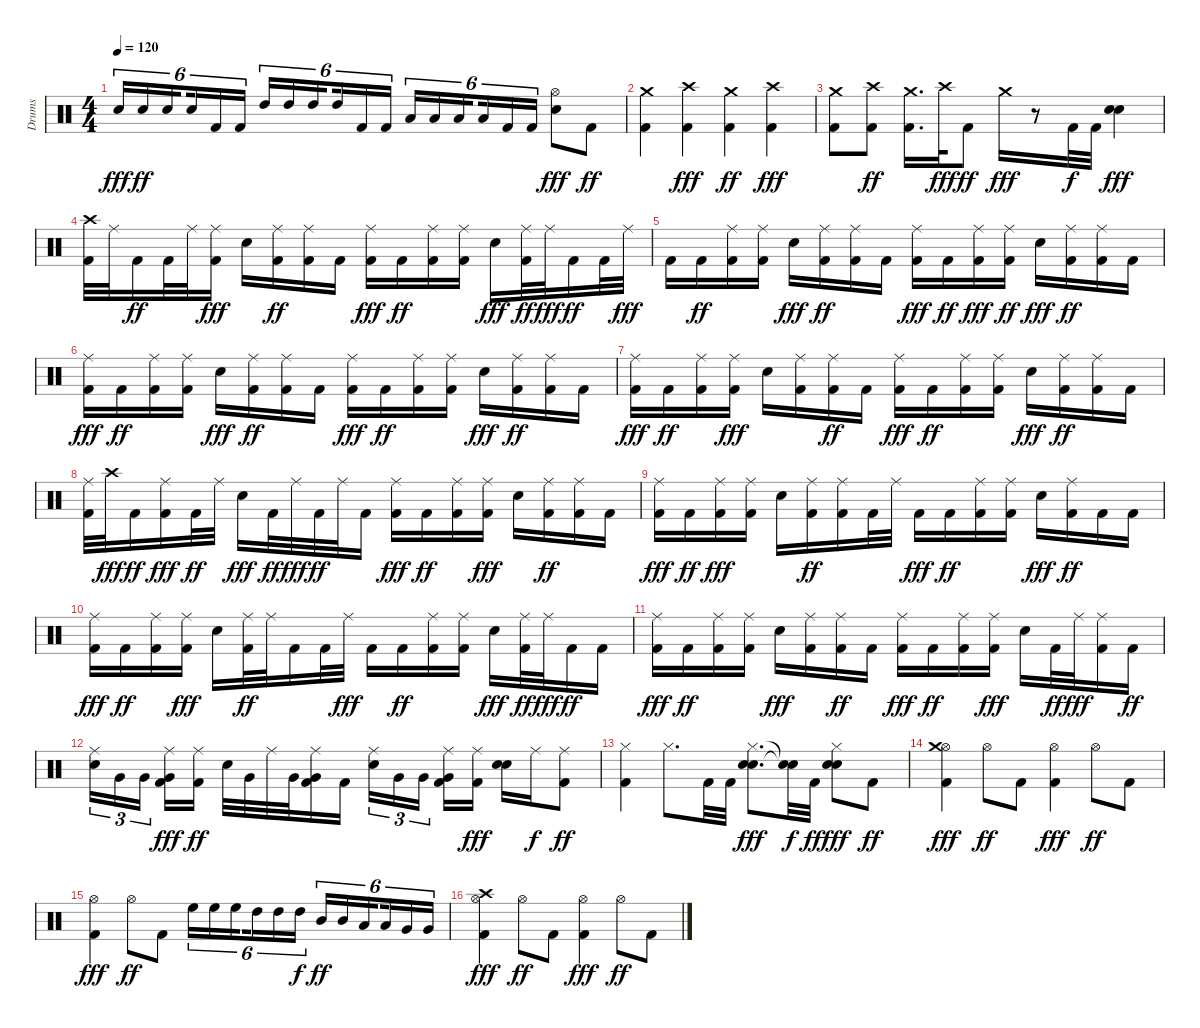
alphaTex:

\track ("Drums" "Drums") {instrument percussion}
\staff {score}
\articulation defaults
\ts (4 4)
\tempo 120
\clef neutral
\ks c "Snare (hit) 2".16{tu (6 4) dy fff} "Snare (hit) 2".16{tu (6 4) dy ff} "Snare (hit) 2".16{tu (6 4) beam splitsecondary} "Snare (hit) 2".16{tu (6 4)} "Kick (hit) 2".16{tu (6 4)} "Kick (hit) 2".16{tu (6 4)} "High Tom (hit)".16{tu (6 4)} "High Tom (hit)".16{tu (6 4)} "High Tom (hit)".16{tu (6 4) beam splitsecondary} "High Tom (hit)".16{tu (6 4)} "Kick (hit) 2".16{tu (6 4)} "Kick (hit) 2".16{tu (6 4)} "Low Tom (hit)".16{tu (6 4)} "Low Tom (hit)".16{tu (6 4)} "Low Tom (hit)".16{tu (6 4) beam splitsecondary} "Low Tom (hit)".16{tu (6 4)} "Kick (hit) 2".16{tu (6 4)} "Kick (hit) 2".16{tu (6 4)}
("Hi-Hat (open)" "Snare (hit) 2").8{dy fff} "Kick (hit) 2".8{dy ff} |
("Kick (hit) 2" "Crash medium (hit)").4 ("Kick (hit) 2" "Crash high (hit)").4{dy fff} ("Kick (hit) 2" "Crash medium (hit)").4{dy ff} ("Kick (hit) 2" "Crash high (hit)").4{dy fff} |
("Crash medium (hit)" "Kick (hit) 2").8 ("Crash high (hit)" "Kick (hit) 2").8{dy ff} ("Crash medium (hit)" "Kick (hit) 2").16{d} "Crash high (hit)".32{dy fff} "Kick (hit) 2".8{dy ff} "Crash medium (hit)".16{dy fff} r.8 "Kick (hit) 2".32{dy f} "Kick (hit) 2".32 ("Snare (hit) 2" "Electric Snare (hit)").4{dy fff} |
("Kick (hit) 2" "Crash high (hit)").32 "Ride (middle)".32 "Kick (hit) 2".16{dy ff} "Kick (hit) 2".32 "Ride (middle)".32 ("Kick (hit) 2" "Ride (middle)").16{dy fff} "Snare (hit) 2".16 ("Kick (hit) 2" "Ride (middle)").16{dy ff} ("Ride (middle)" "Kick (hit) 2").16 "Kick (hit) 2".16 ("Ride (middle)" "Kick (hit) 2").16{dy fff} "Kick (hit) 2".16{dy ff} ("Ride (middle)" "Kick (hit) 2").16 ("Ride (middle)" "Kick (hit) 2").16 "Snare (hit) 2".16{dy fff} ("Ride (middle)" "Kick (hit) 2").32{dy ff} "Ride (middle)".32{dy fff} "Kick (hit) 2".16{dy ff} "Kick (hit) 2".32 "Ride (middle)".32{dy fff} |
"Kick (hit) 2".16 "Kick (hit) 2".16{dy ff} ("Ride (middle)" "Kick (hit) 2").16 ("Ride (middle)" "Kick (hit) 2").16 "Snare (hit) 2".16{dy fff} ("Ride (middle)" "Kick (hit) 2").16{dy ff} ("Ride (middle)" "Kick (hit) 2").16 "Kick (hit) 2".16 ("Ride (middle)" "Kick (hit) 2").16{dy fff} "Kick (hit) 2".16{dy ff} ("Kick (hit) 2" "Ride (middle)").16{dy fff} ("Kick (hit) 2" "Ride (middle)").16{dy ff} "Snare (hit) 2".16{dy fff} ("Kick (hit) 2" "Ride (middle)").16{dy ff} ("Ride (middle)" "Kick (hit) 2").16 "Kick (hit) 2".16 |
("Ride (middle)" "Kick (hit) 2").16{dy fff} "Kick (hit) 2".16{dy ff} ("Ride (middle)" "Kick (hit) 2").16 ("Ride (middle)" "Kick (hit) 2").16 "Snare (hit) 2".16{dy fff} ("Ride (middle)" "Kick (hit) 2").16{dy ff} ("Ride (middle)" "Kick (hit) 2").16 "Kick (hit) 2".16 ("Ride (middle)" "Kick (hit) 2").16{dy fff} "Kick (hit) 2".16{dy ff} ("Kick (hit) 2" "Ride (middle)").16 ("Kick (hit) 2" "Ride (middle)").16 "Snare (hit) 2".16{dy fff} ("Kick (hit) 2" "Ride (middle)").16{dy ff} ("Ride (middle)" "Kick (hit) 2").16 "Kick (hit) 2".16 |
("Ride (middle)" "Kick (hit) 2").16{dy fff} "Kick (hit) 2".16{dy ff} ("Ride (middle)" "Kick (hit) 2").16 ("Kick (hit) 2" "Ride (middle)").16{dy fff} "Snare (hit) 2".16 ("Kick (hit) 2" "Ride (middle)").16 ("Ride (middle)" "Kick (hit) 2").16{dy ff} "Kick (hit) 2".16 ("Ride (middle)" "Kick (hit) 2").16{dy fff} "Kick (hit) 2".16{dy ff} ("Kick (hit) 2" "Ride (middle)").16 ("Kick (hit) 2" "Ride (middle)").16 "Snare (hit) 2".16{dy fff} ("Kick (hit) 2" "Ride (middle)").16{dy ff} ("Ride (middle)" "Kick (hit) 2").16 "Kick (hit) 2".16 |
("Kick (hit) 2" "Ride (middle)").32 "Crash high (hit)".32{dy fff} "Kick (hit) 2".16{dy ff} ("Kick (hit) 2" "Ride (middle)").16{dy fff} "Kick (hit) 2".32{dy ff} "Ride (middle)".32 "Snare (hit) 2".16{dy fff} "Kick (hit) 2".32{dy ff} "Ride (middle)".32{dy fff} "Kick (hit) 2".32{dy ff} "Ride (middle)".32 "Kick (hit) 2".16 ("Ride (middle)" "Kick (hit) 2").16{dy fff} "Kick (hit) 2".16{dy ff} ("Kick (hit) 2" "Ride (middle)").16 ("Kick (hit) 2" "Ride (middle)").16{dy fff} "Snare (hit) 2".16 ("Kick (hit) 2" "Ride (middle)").16{dy ff} ("Ride (middle)" "Kick (hit) 2").16 "Kick (hit) 2".16 |
("Ride (middle)" "Kick (hit) 2").16{dy fff} "Kick (hit) 2".16{dy ff} ("Kick (hit) 2" "Ride (middle)").16{dy fff} ("Kick (hit) 2" "Ride (middle)").16 "Snare (hit) 2".16 ("Ride (middle)" "Kick (hit) 2").16{dy ff} ("Ride (middle)" "Kick (hit) 2").16 "Kick (hit) 2".32 "Ride (middle)".32 "Kick (hit) 2".16{dy fff} "Kick (hit) 2".16{dy ff} ("Ride (middle)" "Kick (hit) 2").16 ("Ride (middle)" "Kick (hit) 2").16 "Snare (hit) 2".16{dy fff} ("Ride (middle)" "Kick (hit) 2").16{dy ff} "Kick (hit) 2".16 "Kick (hit) 2".16 |
("Ride (middle)" "Kick (hit) 2").16{dy fff} "Kick (hit) 2".16{dy ff} ("Ride (middle)" "Kick (hit) 2").16 ("Kick (hit) 2" "Ride (middle)").16{dy fff} "Snare (hit) 2".16 ("Ride (middle)" "Kick (hit) 2").32{dy ff} "Ride (middle)".32 "Kick (hit) 2".16 "Kick (hit) 2".32 "Ride (middle)".32{dy fff} "Kick (hit) 2".16 "Kick (hit) 2".16{dy ff} ("Ride (middle)" "Kick (hit) 2").16 ("Ride (middle)" "Kick (hit) 2").16 "Snare (hit) 2".16{dy fff} ("Ride (middle)" "Kick (hit) 2").32{dy ff} "Ride (middle)".32{dy fff} "Kick (hit) 2".16{dy ff} "Kick (hit) 2".16 |
("Ride (middle)" "Kick (hit) 2").16{dy fff} "Kick (hit) 2".16{dy ff} ("Ride (middle)" "Kick (hit) 2").16 ("Ride (middle)" "Kick (hit) 2").16 "Snare (hit) 2".16{dy fff} ("Kick (hit) 2" "Ride (middle)").16 ("Ride (middle)" "Kick (hit) 2").16{dy ff} "Kick (hit) 2".16 ("Ride (middle)" "Kick (hit) 2").16{dy fff} "Kick (hit) 2".16{dy ff} ("Kick (hit) 2" "Ride (middle)").16 ("Kick (hit) 2" "Ride (middle)").16{dy fff} "Snare (hit) 2".16 "Kick (hit) 2".32{dy ff} "Ride (middle)".32{dy fff} ("Kick (hit) 2" "Ride (middle)").16 "Kick (hit) 2".16{dy ff} |
("Snare (hit) 2" "Ride (middle)").16{tu (3 2)} "Very Low Tom (hit)".16{tu (3 2)} "Very Low Tom (hit)".16{tu (3 2) beam splitsecondary} ("Kick (hit) 2" "Very Low Tom (hit)" "Ride (middle)").16{dy fff} ("Ride (middle)" "Kick (hit) 2").16{dy ff} "Snare (hit) 2".32 "Very Low Tom (hit)".32 "Ride (middle)".32 "Very Low Tom (hit)".32 ("Ride (middle)" "Kick (hit) 2" "Very Low Tom (hit)").16 "Kick (hit) 2".16 ("Ride (middle)" "Snare (hit) 2").16{tu (3 2)} "Very Low Tom (hit)".16{tu (3 2)} "Very Low Tom (hit)".16{tu (3 2) beam splitsecondary} ("Ride (middle)" "Kick (hit) 2" "Very Low Tom (hit)").16 ("Kick (hit) 2" "Ride (middle)").16{dy fff} ("Snare (hit) 2" "Electric Snare (hit)").16 "Ride (middle)".16{dy f} ("Ride (middle)" "Kick (hit) 2").8{dy ff} |
("Hi-Hat (closed)" "Kick (hit) 2").4 "Hi-Hat (closed)".8{d} "Kick (hit) 2".32 "Kick (hit) 2".32 ("Snare (hit) 2" "Hi-Hat (closed)" "Electric Snare (hit)").8{d dy fff} ("Snare (hit)"{t} "Snare (hit)"{t}).32{dy f} "Kick (hit) 2".32{dy ff} ("Snare (hit) 2" "Hi-Hat (closed)" "Electric Snare (hit)").8{dy fff} "Kick (hit) 2".8{dy ff} |
("Hi-Hat (open)" "Kick (hit) 2" "Crash medium (hit)").4{dy fff} "Hi-Hat (open)".8{dy ff} "Kick (hit) 2".8 ("Hi-Hat (open)" "Kick (hit) 2").4{dy fff} "Hi-Hat (open)".8{dy ff} "Kick (hit) 2".8 |
("Hi-Hat (open)" "Kick (hit) 2").4{dy fff} "Hi-Hat (open)".8{dy ff} "Kick (hit) 2".8 "High Floor Tom (hit)".16{tu (6 4)} "High Floor Tom (hit)".16{tu (6 4)} "High Floor Tom (hit)".16{tu (6 4) beam splitsecondary} "High Tom (hit)".16{tu (6 4)} "High Tom (hit)".16{tu (6 4)} "High Tom (hit)".16{tu (6 4) dy f} "Mid Tom (hit)".16{tu (6 4) dy ff} "Mid Tom (hit)".16{tu (6 4)} "Low Tom (hit)".16{tu (6 4) beam splitsecondary} "Low Tom (hit)".16{tu (6 4)} "Very Low Tom (hit)".16{tu (6 4)} "Very Low Tom (hit)".16{tu (6 4)} |
("Crash high (hit)" "Hi-Hat (open)" "Kick (hit) 2").4{dy fff} "Hi-Hat (open)".8{dy ff} "Kick (hit) 2".8 ("Hi-Hat (open)" "Kick (hit) 2").4{dy fff} "Hi-Hat (open)".8{dy ff} "Kick (hit) 2".8
